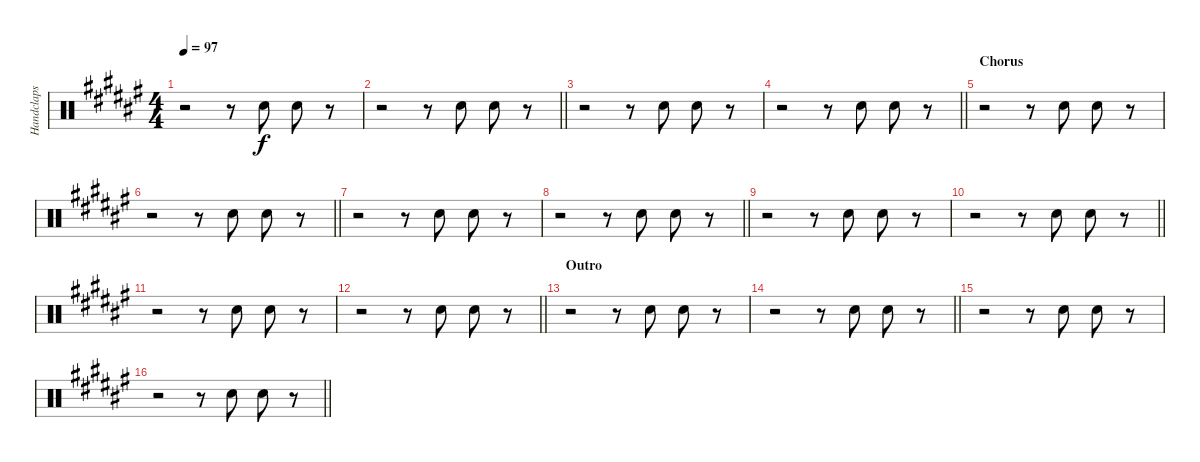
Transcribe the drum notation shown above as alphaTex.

\track ("Handclaps" "Handclaps") {instrument percussion}
\staff {score}
\articulation defaults
\ts (4 4)
\tempo 97
\clef neutral
\ks f#
r.2{dy f} r.8 "Hand Clap (hit)".8 "Hand Clap (hit)".8 r.8 |
\barLineRight lightlight
r.2 r.8 "Hand Clap (hit)".8 "Hand Clap (hit)".8 r.8 |
r.2 r.8 "Hand Clap (hit)".8 "Hand Clap (hit)".8 r.8 |
\barLineRight lightlight
r.2 r.8 "Hand Clap (hit)".8 "Hand Clap (hit)".8 r.8 |
\section ("" "Chorus")
r.2 r.8 "Hand Clap (hit)".8 "Hand Clap (hit)".8 r.8 |
\barLineRight lightlight
r.2 r.8 "Hand Clap (hit)".8 "Hand Clap (hit)".8 r.8 |
r.2 r.8 "Hand Clap (hit)".8 "Hand Clap (hit)".8 r.8 |
\barLineRight lightlight
r.2 r.8 "Hand Clap (hit)".8 "Hand Clap (hit)".8 r.8 |
r.2 r.8 "Hand Clap (hit)".8 "Hand Clap (hit)".8 r.8 |
\barLineRight lightlight
r.2 r.8 "Hand Clap (hit)".8 "Hand Clap (hit)".8 r.8 |
r.2 r.8 "Hand Clap (hit)".8 "Hand Clap (hit)".8 r.8 |
\barLineRight lightlight
r.2 r.8 "Hand Clap (hit)".8 "Hand Clap (hit)".8 r.8 |
\section ("" "Outro")
r.2 r.8 "Hand Clap (hit)".8 "Hand Clap (hit)".8 r.8 |
\barLineRight lightlight
r.2 r.8 "Hand Clap (hit)".8 "Hand Clap (hit)".8 r.8 |
r.2 r.8 "Hand Clap (hit)".8 "Hand Clap (hit)".8 r.8 |
\barLineRight lightlight
r.2 r.8 "Hand Clap (hit)".8 "Hand Clap (hit)".8 r.8
